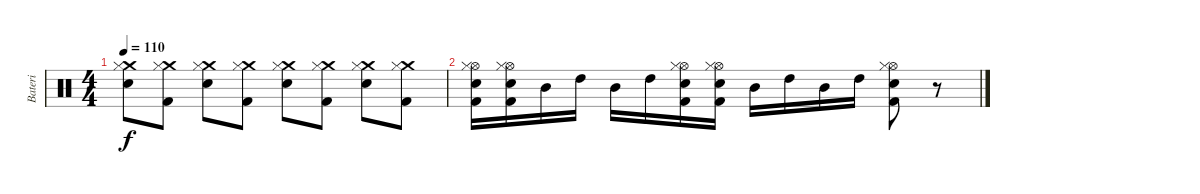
\track ("Bateri" "Bateri") {instrument percussion}
\staff {score}
\articulation defaults
\ts (4 4)
\tempo 110
\clef neutral
\ks c
("Electric Snare (hit)" "Crash medium (hit)" "Hi-Hat (closed)").8{dy f} ("Kick (hit) 2" "Crash medium (hit)" "Hi-Hat (closed)").8 ("Electric Snare (hit)" "Crash medium (hit)" "Hi-Hat (closed)").8 ("Kick (hit) 2" "Crash medium (hit)" "Hi-Hat (closed)").8 ("Electric Snare (hit)" "Crash medium (hit)" "Hi-Hat (closed)").8 ("Kick (hit) 2" "Crash medium (hit)" "Hi-Hat (closed)").8 ("Electric Snare (hit)" "Crash medium (hit)" "Hi-Hat (closed)").8 ("Kick (hit) 2" "Crash medium (hit)" "Hi-Hat (closed)").8 |
("Electric Snare (hit)" "Kick (hit) 2" "Hi-Hat (open)" "Hi-Hat (closed)").16{volume 12} ("Kick (hit) 2" "Electric Snare (hit)" "Hi-Hat (open)" "Hi-Hat (closed)").16 "Mid Tom (hit)".16 "High Tom (hit)".16 "Mid Tom (hit)".16 "High Tom (hit)".16 ("Electric Snare (hit)" "Kick (hit) 2" "Hi-Hat (open)" "Hi-Hat (closed)").16 ("Kick (hit) 2" "Electric Snare (hit)" "Hi-Hat (open)" "Hi-Hat (closed)").16 "Mid Tom (hit)".16 "High Tom (hit)".16 "Mid Tom (hit)".16 "High Tom (hit)".16 ("Kick (hit) 2" "Electric Snare (hit)" "Hi-Hat (open)" "Hi-Hat (closed)").8 r.8
